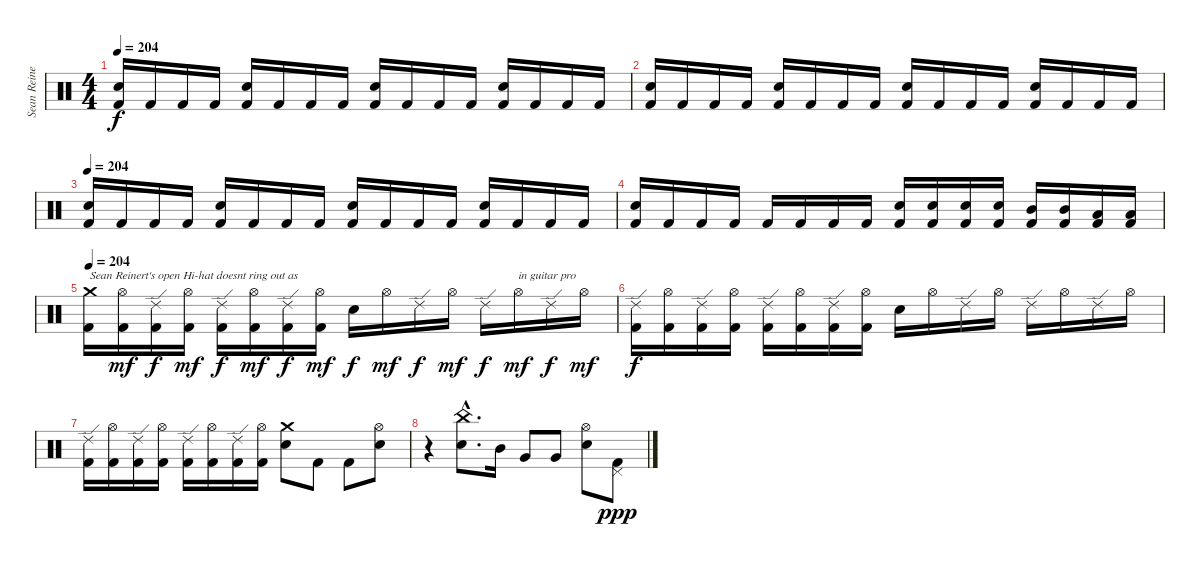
\track ("Sean Reinert" "Sean Reine") {instrument percussion}
\staff {score}
\articulation defaults
\ts (4 4)
\tempo 204
\clef neutral
\ks c
("Snare (hit) 2" "Kick (hit) 2").16{dy f} "Kick (hit) 2".16 "Kick (hit) 2".16 "Kick (hit) 2".16 ("Snare (hit) 2" "Kick (hit) 2").16 "Kick (hit) 2".16 "Kick (hit) 2".16 "Kick (hit) 2".16 ("Snare (hit) 2" "Kick (hit) 2").16 "Kick (hit) 2".16 "Kick (hit) 2".16 "Kick (hit) 2".16 ("Snare (hit) 2" "Kick (hit) 2").16 "Kick (hit) 2".16 "Kick (hit) 2".16 "Kick (hit) 2".16 |
("Snare (hit) 2" "Kick (hit) 2").16 "Kick (hit) 2".16 "Kick (hit) 2".16 "Kick (hit) 2".16 ("Snare (hit) 2" "Kick (hit) 2").16 "Kick (hit) 2".16 "Kick (hit) 2".16 "Kick (hit) 2".16 ("Snare (hit) 2" "Kick (hit) 2").16 "Kick (hit) 2".16 "Kick (hit) 2".16 "Kick (hit) 2".16 ("Snare (hit) 2" "Kick (hit) 2").16 "Kick (hit) 2".16 "Kick (hit) 2".16 "Kick (hit) 2".16 |
\tempo 204
("Snare (hit) 2" "Kick (hit) 2").16 "Kick (hit) 2".16 "Kick (hit) 2".16 "Kick (hit) 2".16 ("Snare (hit) 2" "Kick (hit) 2").16 "Kick (hit) 2".16 "Kick (hit) 2".16 "Kick (hit) 2".16 ("Snare (hit) 2" "Kick (hit) 2").16 "Kick (hit) 2".16 "Kick (hit) 2".16 "Kick (hit) 2".16 ("Snare (hit) 2" "Kick (hit) 2").16 "Kick (hit) 2".16 "Kick (hit) 2".16 "Kick (hit) 2".16 |
("Snare (hit) 2" "Kick (hit) 2").16 "Kick (hit) 2".16 "Kick (hit) 2".16 "Kick (hit) 2".16 "Kick (hit) 2".16 "Kick (hit) 2".16 "Kick (hit) 2".16 "Kick (hit) 2".16 ("Snare (hit) 2" "Kick (hit) 2").16 ("Snare (hit) 2" "Kick (hit) 2").16 ("Snare (hit) 2" "Kick (hit) 2").16 ("Snare (hit) 2" "Kick (hit) 2").16 ("Mid Tom (hit)" "Kick (hit) 2").16 ("Mid Tom (hit)" "Kick (hit) 2").16 ("Low Tom (hit)" "Kick (hit) 2").16 ("Low Tom (hit)" "Kick (hit) 2").16 |
\tempo 204
("Crash medium (hit)" "Kick (hit) 2").16{txt "Sean Reinert's open Hi-hat doesnt ring out as  "} ("Hi-Hat (open)" "Kick (hit) 2").16{dy mf} ("Ride (edge) 2" "Kick (hit) 2").16{dy f} ("Hi-Hat (open)" "Kick (hit) 2").16{dy mf} ("Ride (edge) 2" "Kick (hit) 2").16{dy f} ("Hi-Hat (open)" "Kick (hit) 2").16{dy mf} ("Ride (edge) 2" "Kick (hit) 2").16{dy f} ("Hi-Hat (open)" "Kick (hit) 2").16{dy mf} "Snare (hit) 2".16{dy f} "Hi-Hat (open)".16{dy mf} "Ride (edge) 2".16{dy f} "Hi-Hat (open)".16{dy mf} "Ride (edge) 2".16{dy f} "Hi-Hat (open)".16{txt "in guitar pro" dy mf} "Ride (edge) 2".16{dy f} "Hi-Hat (open)".16{dy mf} |
("Ride (edge) 2" "Kick (hit) 2").16{dy f} ("Hi-Hat (open)" "Kick (hit) 2").16 ("Ride (edge) 2" "Kick (hit) 2").16 ("Hi-Hat (open)" "Kick (hit) 2").16 ("Ride (edge) 2" "Kick (hit) 2").16 ("Hi-Hat (open)" "Kick (hit) 2").16 ("Ride (edge) 2" "Kick (hit) 2").16 ("Hi-Hat (open)" "Kick (hit) 2").16 "Snare (hit) 2".16 "Hi-Hat (open)".16 "Ride (edge) 2".16 "Hi-Hat (open)".16 "Ride (edge) 2".16 "Hi-Hat (open)".16 "Ride (edge) 2".16 "Hi-Hat (open)".16 |
("Ride (edge) 2" "Kick (hit) 2").16 ("Hi-Hat (open)" "Kick (hit) 2").16 ("Ride (edge) 2" "Kick (hit) 2").16 ("Hi-Hat (open)" "Kick (hit) 2").16 ("Ride (edge) 2" "Kick (hit) 2").16 ("Hi-Hat (open)" "Kick (hit) 2").16 ("Ride (edge) 2" "Kick (hit) 2").16 ("Hi-Hat (open)" "Kick (hit) 2").16 ("Crash medium (hit)" "Snare (hit) 2").8 "Kick (hit) 2".8 "Kick (hit) 2".8 ("Hi-Hat (open)" "Snare (hit) 2").8 |
r.4 ("China (hit)"{hac} "Snare (hit) 2"{hac}).8{d} "Mid Tom (hit)".16 "Very Low Tom (hit)".8 "Very Low Tom (hit)".8 ("Hi-Hat (open)" "Snare (hit) 2").8 ("Pedal Hi-Hat (hit)" "Kick (hit) 2").8{dy ppp}
